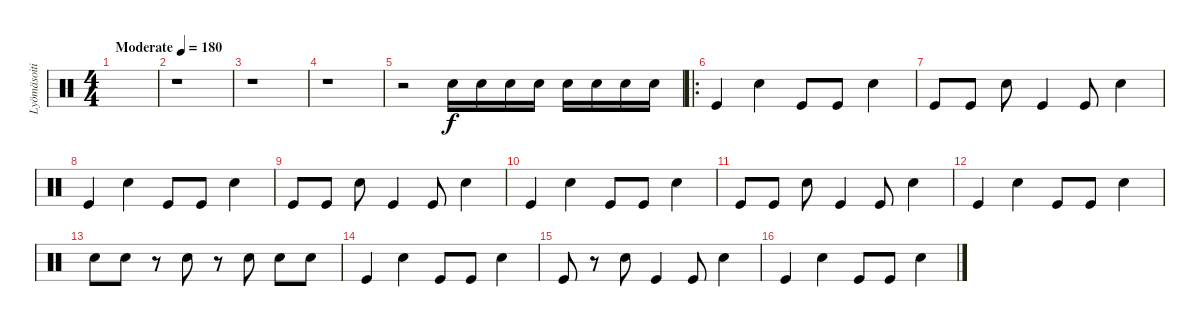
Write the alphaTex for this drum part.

\track ("Lyömäsoitin" "Lyömäsoiti") {instrument percussion}
\staff {score}
\articulation defaults
\ts (4 4)
\tempo (180 "Moderate")
\clef neutral
\ks c
|
r.1 |
r.1 |
r.1 |
r.2 "Snare (hit) 2".16 "Snare (hit) 2".16 "Snare (hit) 2".16 "Snare (hit) 2".16 "Snare (hit) 2".16 "Snare (hit) 2".16 "Snare (hit) 2".16 "Snare (hit) 2".16 |
\ro "Kick (hit)".4 "Snare (hit) 2".4 "Kick (hit)".8 "Kick (hit)".8 "Snare (hit) 2".4
|
"Kick (hit)".8 "Kick (hit)".8 "Snare (hit) 2".8 "Kick (hit)".4 "Kick (hit)".8 "Snare (hit) 2".4 |
"Kick (hit)".4 "Snare (hit) 2".4 "Kick (hit)".8 "Kick (hit)".8 "Snare (hit) 2".4 |
"Kick (hit)".8 "Kick (hit)".8 "Snare (hit) 2".8 "Kick (hit)".4 "Kick (hit)".8 "Snare (hit) 2".4 |
"Kick (hit)".4 "Snare (hit) 2".4 "Kick (hit)".8 "Kick (hit)".8 "Snare (hit) 2".4 |
"Kick (hit)".8 "Kick (hit)".8 "Snare (hit) 2".8 "Kick (hit)".4 "Kick (hit)".8 "Snare (hit) 2".4 |
"Kick (hit)".4 "Snare (hit) 2".4 "Kick (hit)".8 "Kick (hit)".8 "Snare (hit) 2".4 |
"Snare (hit) 2".8 "Snare (hit) 2".8 r.8 "Snare (hit) 2".8 r.8 "Snare (hit) 2".8 "Snare (hit) 2".8 "Snare (hit) 2".8 |
"Kick (hit)".4 "Snare (hit) 2".4 "Kick (hit)".8 "Kick (hit)".8 "Snare (hit) 2".4 |
"Kick (hit)".8 r.8 "Snare (hit) 2".8 "Kick (hit)".4 "Kick (hit)".8 "Snare (hit) 2".4 |
"Kick (hit)".4 "Snare (hit) 2".4 "Kick (hit)".8 "Kick (hit)".8 "Snare (hit) 2".4
